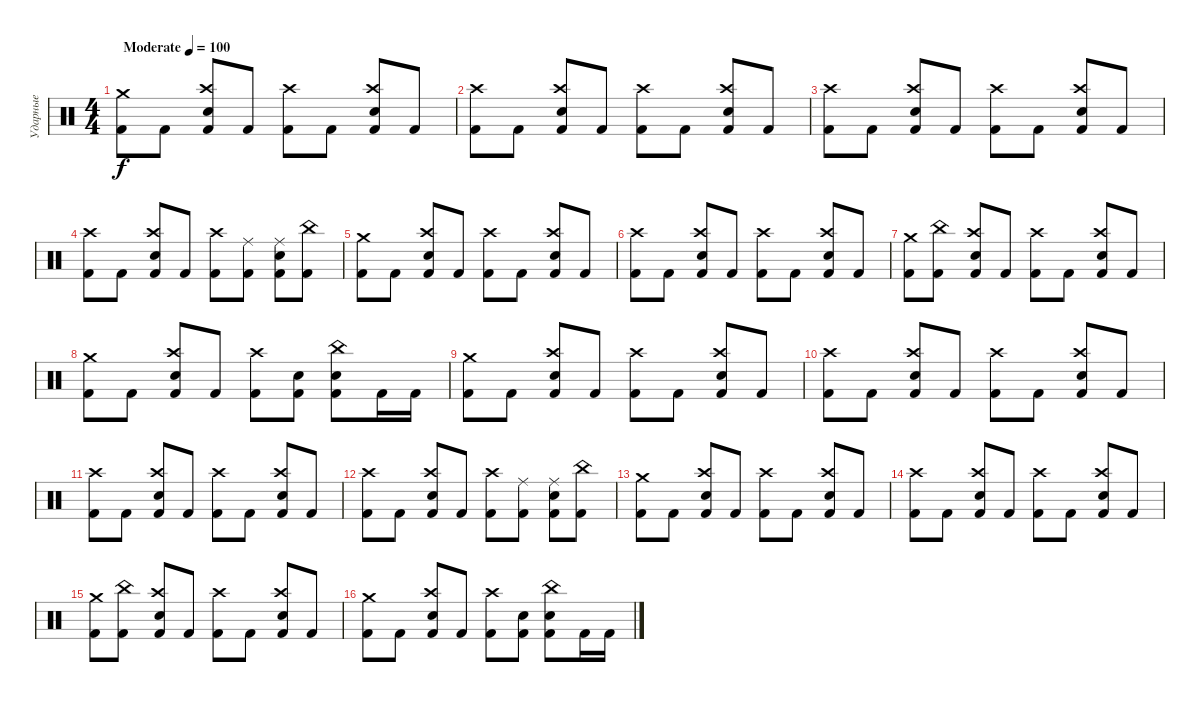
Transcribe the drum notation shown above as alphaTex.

\track ("Ударные" "Ударные") {instrument percussion}
\staff {score}
\articulation defaults
\ts (4 4)
\tempo (100 "Moderate")
\clef neutral
\ks c
("Crash medium (hit)" "Kick (hit) 2").8{dy f} "Kick (hit) 2".8 ("Crash high (hit)" "Electric Snare (hit)" "Kick (hit) 2").8 "Kick (hit) 2".8 ("Crash high (hit)" "Kick (hit) 2").8 "Kick (hit) 2".8 ("Crash high (hit)" "Electric Snare (hit)" "Kick (hit) 2").8 "Kick (hit) 2".8 |
("Crash high (hit)" "Kick (hit) 2").8 "Kick (hit) 2".8 ("Crash high (hit)" "Electric Snare (hit)" "Kick (hit) 2").8 "Kick (hit) 2".8 ("Crash high (hit)" "Kick (hit) 2").8 "Kick (hit) 2".8 ("Crash high (hit)" "Electric Snare (hit)" "Kick (hit) 2").8 "Kick (hit) 2".8 |
("Crash high (hit)" "Kick (hit) 2").8 "Kick (hit) 2".8 ("Crash high (hit)" "Electric Snare (hit)" "Kick (hit) 2").8 "Kick (hit) 2".8 ("Crash high (hit)" "Kick (hit) 2").8 "Kick (hit) 2".8 ("Crash high (hit)" "Electric Snare (hit)" "Kick (hit) 2").8 "Kick (hit) 2".8 |
("Crash high (hit)" "Kick (hit) 2").8 "Kick (hit) 2".8 ("Crash high (hit)" "Electric Snare (hit)" "Kick (hit) 2").8 "Kick (hit) 2".8 ("Crash high (hit)" "Kick (hit) 2").8 ("Ride (middle)" "Kick (hit) 2").8 ("Ride (middle)" "Electric Snare (hit)" "Kick (hit) 2").8 ("China (hit)" "Kick (hit) 2").8 |
("Crash medium (hit)" "Kick (hit) 2").8 "Kick (hit) 2".8 ("Crash high (hit)" "Electric Snare (hit)" "Kick (hit) 2").8 "Kick (hit) 2".8 ("Crash high (hit)" "Kick (hit) 2").8 "Kick (hit) 2".8 ("Crash high (hit)" "Electric Snare (hit)" "Kick (hit) 2").8 "Kick (hit) 2".8 |
("Crash high (hit)" "Kick (hit) 2").8 "Kick (hit) 2".8 ("Crash high (hit)" "Electric Snare (hit)" "Kick (hit) 2").8 "Kick (hit) 2".8 ("Crash high (hit)" "Kick (hit) 2").8 "Kick (hit) 2".8 ("Crash high (hit)" "Electric Snare (hit)" "Kick (hit) 2").8 "Kick (hit) 2".8 |
("Crash medium (hit)" "Kick (hit) 2").8 ("China (hit)" "Kick (hit) 2").8 ("Crash high (hit)" "Electric Snare (hit)" "Kick (hit) 2").8 "Kick (hit) 2".8 ("Crash high (hit)" "Kick (hit) 2").8 "Kick (hit) 2".8 ("Crash high (hit)" "Electric Snare (hit)" "Kick (hit) 2").8 "Kick (hit) 2".8 |
("Crash medium (hit)" "Kick (hit) 2").8 "Kick (hit) 2".8 ("Crash high (hit)" "Electric Snare (hit)" "Kick (hit) 2").8 "Kick (hit) 2".8 ("Crash high (hit)" "Kick (hit) 2").8 ("Electric Snare (hit)" "Kick (hit) 2").8 ("China (hit)" "Electric Snare (hit)" "Kick (hit) 2").8 "Kick (hit) 2".16 "Kick (hit) 2".16 |
("Crash medium (hit)" "Kick (hit) 2").8 "Kick (hit) 2".8 ("Crash high (hit)" "Electric Snare (hit)" "Kick (hit) 2").8 "Kick (hit) 2".8 ("Crash high (hit)" "Kick (hit) 2").8 "Kick (hit) 2".8 ("Crash high (hit)" "Electric Snare (hit)" "Kick (hit) 2").8 "Kick (hit) 2".8 |
("Crash high (hit)" "Kick (hit) 2").8 "Kick (hit) 2".8 ("Crash high (hit)" "Electric Snare (hit)" "Kick (hit) 2").8 "Kick (hit) 2".8 ("Crash high (hit)" "Kick (hit) 2").8 "Kick (hit) 2".8 ("Crash high (hit)" "Electric Snare (hit)" "Kick (hit) 2").8 "Kick (hit) 2".8 |
("Crash high (hit)" "Kick (hit) 2").8 "Kick (hit) 2".8 ("Crash high (hit)" "Electric Snare (hit)" "Kick (hit) 2").8 "Kick (hit) 2".8 ("Crash high (hit)" "Kick (hit) 2").8 "Kick (hit) 2".8 ("Crash high (hit)" "Electric Snare (hit)" "Kick (hit) 2").8 "Kick (hit) 2".8 |
("Crash high (hit)" "Kick (hit) 2").8 "Kick (hit) 2".8 ("Crash high (hit)" "Electric Snare (hit)" "Kick (hit) 2").8 "Kick (hit) 2".8 ("Crash high (hit)" "Kick (hit) 2").8 ("Ride (middle)" "Kick (hit) 2").8 ("Ride (middle)" "Electric Snare (hit)" "Kick (hit) 2").8 ("China (hit)" "Kick (hit) 2").8 |
("Crash medium (hit)" "Kick (hit) 2").8 "Kick (hit) 2".8 ("Crash high (hit)" "Electric Snare (hit)" "Kick (hit) 2").8 "Kick (hit) 2".8 ("Crash high (hit)" "Kick (hit) 2").8 "Kick (hit) 2".8 ("Crash high (hit)" "Electric Snare (hit)" "Kick (hit) 2").8 "Kick (hit) 2".8 |
("Crash high (hit)" "Kick (hit) 2").8 "Kick (hit) 2".8 ("Crash high (hit)" "Electric Snare (hit)" "Kick (hit) 2").8 "Kick (hit) 2".8 ("Crash high (hit)" "Kick (hit) 2").8 "Kick (hit) 2".8 ("Crash high (hit)" "Electric Snare (hit)" "Kick (hit) 2").8 "Kick (hit) 2".8 |
("Crash medium (hit)" "Kick (hit) 2").8 ("China (hit)" "Kick (hit) 2").8 ("Crash high (hit)" "Electric Snare (hit)" "Kick (hit) 2").8 "Kick (hit) 2".8 ("Crash high (hit)" "Kick (hit) 2").8 "Kick (hit) 2".8 ("Crash high (hit)" "Electric Snare (hit)" "Kick (hit) 2").8 "Kick (hit) 2".8 |
("Crash medium (hit)" "Kick (hit) 2").8 "Kick (hit) 2".8 ("Crash high (hit)" "Electric Snare (hit)" "Kick (hit) 2").8 "Kick (hit) 2".8 ("Crash high (hit)" "Kick (hit) 2").8 ("Electric Snare (hit)" "Kick (hit) 2").8 ("China (hit)" "Electric Snare (hit)" "Kick (hit) 2").8 "Kick (hit) 2".16 "Kick (hit) 2".16
